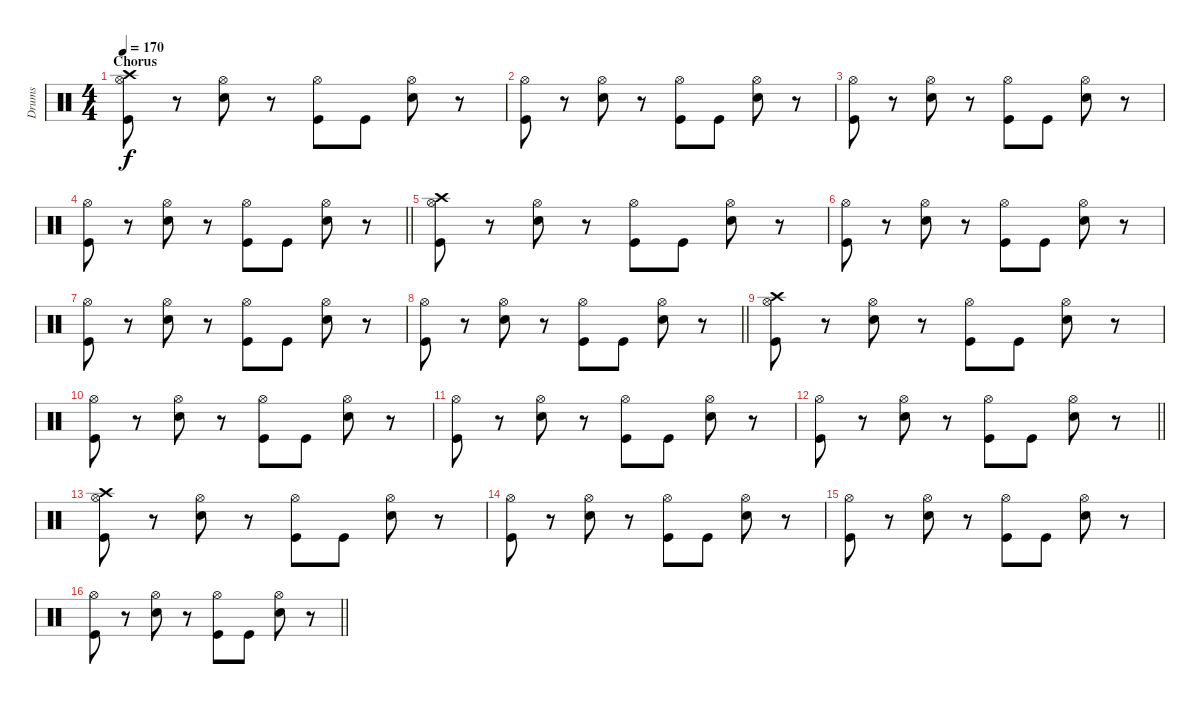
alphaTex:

\track ("Drums" "Drums") {instrument percussion}
\staff {score}
\articulation defaults
\ts (4 4)
\section ("" "Chorus")
\tempo 170
\clef neutral
\ks c
("Hi-Hat (open)" "Crash high (hit)" "Kick (hit)").8{dy f} r.8 ("Hi-Hat (open)" "Snare (hit) 2").8 r.8 ("Hi-Hat (open)" "Kick (hit)").8 "Kick (hit)".8 ("Hi-Hat (open)" "Snare (hit) 2").8 r.8 |
("Hi-Hat (open)" "Kick (hit)").8 r.8 ("Hi-Hat (open)" "Snare (hit) 2").8 r.8 ("Hi-Hat (open)" "Kick (hit)").8 "Kick (hit)".8 ("Hi-Hat (open)" "Snare (hit) 2").8 r.8 |
("Hi-Hat (open)" "Kick (hit)").8 r.8 ("Hi-Hat (open)" "Snare (hit) 2").8 r.8 ("Hi-Hat (open)" "Kick (hit)").8 "Kick (hit)".8 ("Hi-Hat (open)" "Snare (hit) 2").8 r.8 |
\barLineRight lightlight
("Hi-Hat (open)" "Kick (hit)").8 r.8 ("Hi-Hat (open)" "Snare (hit) 2").8 r.8 ("Hi-Hat (open)" "Kick (hit)").8 "Kick (hit)".8 ("Hi-Hat (open)" "Snare (hit) 2").8 r.8 |
("Hi-Hat (open)" "Crash high (hit)" "Kick (hit)").8 r.8 ("Hi-Hat (open)" "Snare (hit) 2").8 r.8 ("Hi-Hat (open)" "Kick (hit)").8 "Kick (hit)".8 ("Hi-Hat (open)" "Snare (hit) 2").8 r.8 |
("Hi-Hat (open)" "Kick (hit)").8 r.8 ("Hi-Hat (open)" "Snare (hit) 2").8 r.8 ("Hi-Hat (open)" "Kick (hit)").8 "Kick (hit)".8 ("Hi-Hat (open)" "Snare (hit) 2").8 r.8 |
("Hi-Hat (open)" "Kick (hit)").8 r.8 ("Hi-Hat (open)" "Snare (hit) 2").8 r.8 ("Hi-Hat (open)" "Kick (hit)").8 "Kick (hit)".8 ("Hi-Hat (open)" "Snare (hit) 2").8 r.8 |
\barLineRight lightlight
("Hi-Hat (open)" "Kick (hit)").8 r.8 ("Hi-Hat (open)" "Snare (hit) 2").8 r.8 ("Hi-Hat (open)" "Kick (hit)").8 "Kick (hit)".8 ("Hi-Hat (open)" "Snare (hit) 2").8 r.8 |
("Hi-Hat (open)" "Crash high (hit)" "Kick (hit)").8 r.8 ("Hi-Hat (open)" "Snare (hit) 2").8 r.8 ("Hi-Hat (open)" "Kick (hit)").8 "Kick (hit)".8 ("Hi-Hat (open)" "Snare (hit) 2").8 r.8 |
("Hi-Hat (open)" "Kick (hit)").8 r.8 ("Hi-Hat (open)" "Snare (hit) 2").8 r.8 ("Hi-Hat (open)" "Kick (hit)").8 "Kick (hit)".8 ("Hi-Hat (open)" "Snare (hit) 2").8 r.8 |
("Hi-Hat (open)" "Kick (hit)").8 r.8 ("Hi-Hat (open)" "Snare (hit) 2").8 r.8 ("Hi-Hat (open)" "Kick (hit)").8 "Kick (hit)".8 ("Hi-Hat (open)" "Snare (hit) 2").8 r.8 |
\barLineRight lightlight
("Hi-Hat (open)" "Kick (hit)").8 r.8 ("Hi-Hat (open)" "Snare (hit) 2").8 r.8 ("Hi-Hat (open)" "Kick (hit)").8 "Kick (hit)".8 ("Hi-Hat (open)" "Snare (hit) 2").8 r.8 |
("Hi-Hat (open)" "Crash high (hit)" "Kick (hit)").8 r.8 ("Hi-Hat (open)" "Snare (hit) 2").8 r.8 ("Hi-Hat (open)" "Kick (hit)").8 "Kick (hit)".8 ("Hi-Hat (open)" "Snare (hit) 2").8 r.8 |
("Hi-Hat (open)" "Kick (hit)").8 r.8 ("Hi-Hat (open)" "Snare (hit) 2").8 r.8 ("Hi-Hat (open)" "Kick (hit)").8 "Kick (hit)".8 ("Hi-Hat (open)" "Snare (hit) 2").8 r.8 |
("Hi-Hat (open)" "Kick (hit)").8 r.8 ("Hi-Hat (open)" "Snare (hit) 2").8 r.8 ("Hi-Hat (open)" "Kick (hit)").8 "Kick (hit)".8 ("Hi-Hat (open)" "Snare (hit) 2").8 r.8 |
\barLineRight lightlight
("Hi-Hat (open)" "Kick (hit)").8 r.8 ("Hi-Hat (open)" "Snare (hit) 2").8 r.8 ("Hi-Hat (open)" "Kick (hit)").8 "Kick (hit)".8 ("Hi-Hat (open)" "Snare (hit) 2").8 r.8
